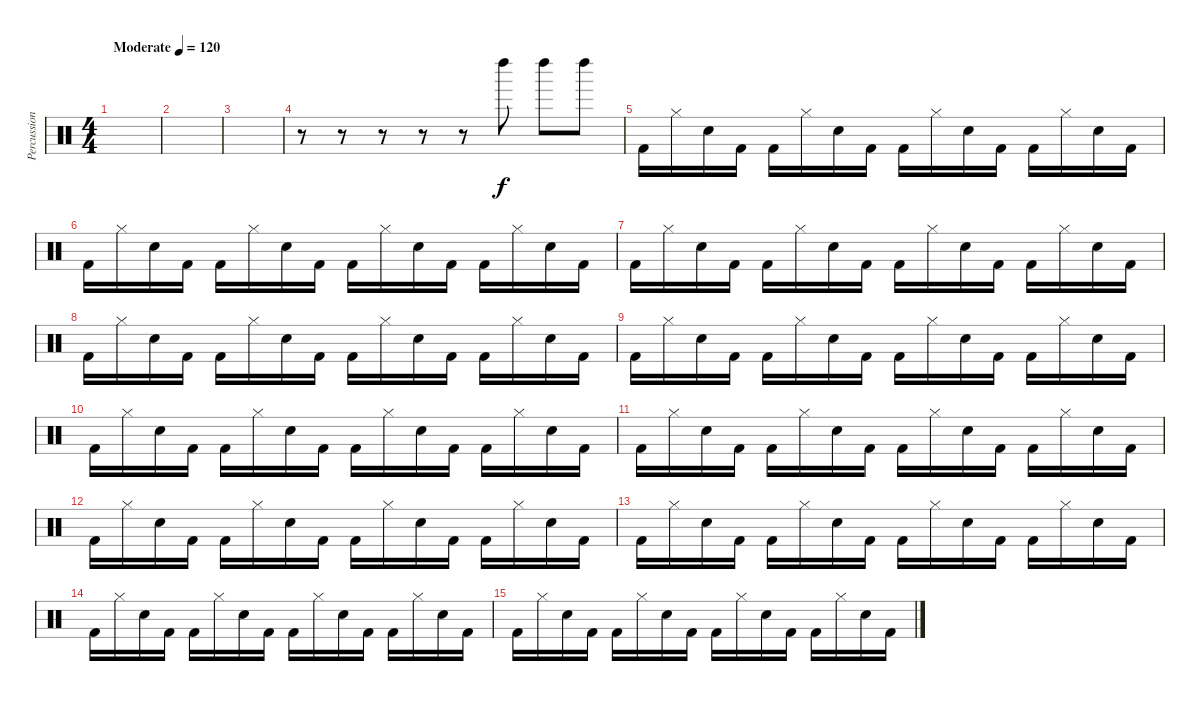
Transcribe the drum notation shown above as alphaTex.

\track ("Percussion" "Percussion") {instrument percussion}
\staff {score}
\articulation defaults
\ts (4 4)
\tempo (120 "Moderate")
\clef neutral
\ks c
|
|
|
r.8 r.8 r.8 r.8 r.8 "Left Maraca (hit)".8 "Left Maraca (hit)".8 "Left Maraca (hit)".8 |
"Kick (hit) 2".16 "Hi-Hat (closed)".16 "Snare (hit) 2".16 "Kick (hit) 2".16 "Kick (hit) 2".16 "Hi-Hat (closed)".16 "Snare (hit) 2".16 "Kick (hit) 2".16 "Kick (hit) 2".16 "Hi-Hat (closed)".16 "Snare (hit) 2".16 "Kick (hit) 2".16 "Kick (hit) 2".16 "Hi-Hat (closed)".16 "Snare (hit) 2".16 "Kick (hit) 2".16 |
"Kick (hit) 2".16 "Hi-Hat (closed)".16 "Snare (hit) 2".16 "Kick (hit) 2".16 "Kick (hit) 2".16 "Hi-Hat (closed)".16 "Snare (hit) 2".16 "Kick (hit) 2".16 "Kick (hit) 2".16 "Hi-Hat (closed)".16 "Snare (hit) 2".16 "Kick (hit) 2".16 "Kick (hit) 2".16 "Hi-Hat (closed)".16 "Snare (hit) 2".16 "Kick (hit) 2".16 |
"Kick (hit) 2".16 "Hi-Hat (closed)".16 "Snare (hit) 2".16 "Kick (hit) 2".16 "Kick (hit) 2".16 "Hi-Hat (closed)".16 "Snare (hit) 2".16 "Kick (hit) 2".16 "Kick (hit) 2".16 "Hi-Hat (closed)".16 "Snare (hit) 2".16 "Kick (hit) 2".16 "Kick (hit) 2".16 "Hi-Hat (closed)".16 "Snare (hit) 2".16 "Kick (hit) 2".16 |
"Kick (hit) 2".16 "Hi-Hat (closed)".16 "Snare (hit) 2".16 "Kick (hit) 2".16 "Kick (hit) 2".16 "Hi-Hat (closed)".16 "Snare (hit) 2".16 "Kick (hit) 2".16 "Kick (hit) 2".16 "Hi-Hat (closed)".16 "Snare (hit) 2".16 "Kick (hit) 2".16 "Kick (hit) 2".16 "Hi-Hat (closed)".16 "Snare (hit) 2".16 "Kick (hit) 2".16 |
"Kick (hit) 2".16 "Hi-Hat (closed)".16 "Snare (hit) 2".16 "Kick (hit) 2".16 "Kick (hit) 2".16 "Hi-Hat (closed)".16 "Snare (hit) 2".16 "Kick (hit) 2".16 "Kick (hit) 2".16 "Hi-Hat (closed)".16 "Snare (hit) 2".16 "Kick (hit) 2".16 "Kick (hit) 2".16 "Hi-Hat (closed)".16 "Snare (hit) 2".16 "Kick (hit) 2".16 |
"Kick (hit) 2".16 "Hi-Hat (closed)".16 "Snare (hit) 2".16 "Kick (hit) 2".16 "Kick (hit) 2".16 "Hi-Hat (closed)".16 "Snare (hit) 2".16 "Kick (hit) 2".16 "Kick (hit) 2".16 "Hi-Hat (closed)".16 "Snare (hit) 2".16 "Kick (hit) 2".16 "Kick (hit) 2".16 "Hi-Hat (closed)".16 "Snare (hit) 2".16 "Kick (hit) 2".16 |
"Kick (hit) 2".16 "Hi-Hat (closed)".16 "Snare (hit) 2".16 "Kick (hit) 2".16 "Kick (hit) 2".16 "Hi-Hat (closed)".16 "Snare (hit) 2".16 "Kick (hit) 2".16 "Kick (hit) 2".16 "Hi-Hat (closed)".16 "Snare (hit) 2".16 "Kick (hit) 2".16 "Kick (hit) 2".16 "Hi-Hat (closed)".16 "Snare (hit) 2".16 "Kick (hit) 2".16 |
"Kick (hit) 2".16 "Hi-Hat (closed)".16 "Snare (hit) 2".16 "Kick (hit) 2".16 "Kick (hit) 2".16 "Hi-Hat (closed)".16 "Snare (hit) 2".16 "Kick (hit) 2".16 "Kick (hit) 2".16 "Hi-Hat (closed)".16 "Snare (hit) 2".16 "Kick (hit) 2".16 "Kick (hit) 2".16 "Hi-Hat (closed)".16 "Snare (hit) 2".16 "Kick (hit) 2".16 |
"Kick (hit) 2".16 "Hi-Hat (closed)".16 "Snare (hit) 2".16 "Kick (hit) 2".16 "Kick (hit) 2".16 "Hi-Hat (closed)".16 "Snare (hit) 2".16 "Kick (hit) 2".16 "Kick (hit) 2".16 "Hi-Hat (closed)".16 "Snare (hit) 2".16 "Kick (hit) 2".16 "Kick (hit) 2".16 "Hi-Hat (closed)".16 "Snare (hit) 2".16 "Kick (hit) 2".16 |
"Kick (hit) 2".16 "Hi-Hat (closed)".16 "Snare (hit) 2".16 "Kick (hit) 2".16 "Kick (hit) 2".16 "Hi-Hat (closed)".16 "Snare (hit) 2".16 "Kick (hit) 2".16 "Kick (hit) 2".16 "Hi-Hat (closed)".16 "Snare (hit) 2".16 "Kick (hit) 2".16 "Kick (hit) 2".16 "Hi-Hat (closed)".16 "Snare (hit) 2".16 "Kick (hit) 2".16 |
"Kick (hit) 2".16 "Hi-Hat (closed)".16 "Snare (hit) 2".16 "Kick (hit) 2".16 "Kick (hit) 2".16 "Hi-Hat (closed)".16 "Snare (hit) 2".16 "Kick (hit) 2".16 "Kick (hit) 2".16 "Hi-Hat (closed)".16 "Snare (hit) 2".16 "Kick (hit) 2".16 "Kick (hit) 2".16 "Hi-Hat (closed)".16 "Snare (hit) 2".16 "Kick (hit) 2".16
